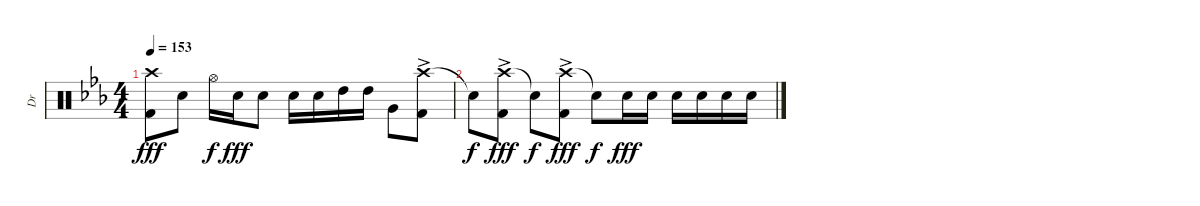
\track ("Dr" "Dr") {instrument percussion}
\staff {score}
\articulation defaults
\ts (4 4)
\tempo 153
\clef neutral
\ks cminor
("Crash high (hit)" "Kick (hit) 2").8{dy fff} "Electric Snare (hit)".8 "Hi-Hat (open)".16{dy f} "Electric Snare (hit)".16{dy fff} "Electric Snare (hit)".8 "Electric Snare (hit)".16 "Electric Snare (hit)".16 "High Tom (hit)".16 "High Tom (hit)".16 "Very Low Tom (hit)".8 ("Crash high (hit)"{ac} "Kick (hit) 2"{ac}).8 |
"Snare (hit)"{t}.8{dy f} ("Crash high (hit)"{ac} "Kick (hit) 2"{ac}).8{dy fff} "Snare (hit)"{t}.8{dy f} ("Crash high (hit)"{ac} "Kick (hit) 2"{ac}).8{dy fff} "Snare (hit)"{t}.8{dy f} "Electric Snare (hit)".16{dy fff} "Electric Snare (hit)".16 "Electric Snare (hit)".16 "Electric Snare (hit)".16 "Electric Snare (hit)".16 "Electric Snare (hit)".16
